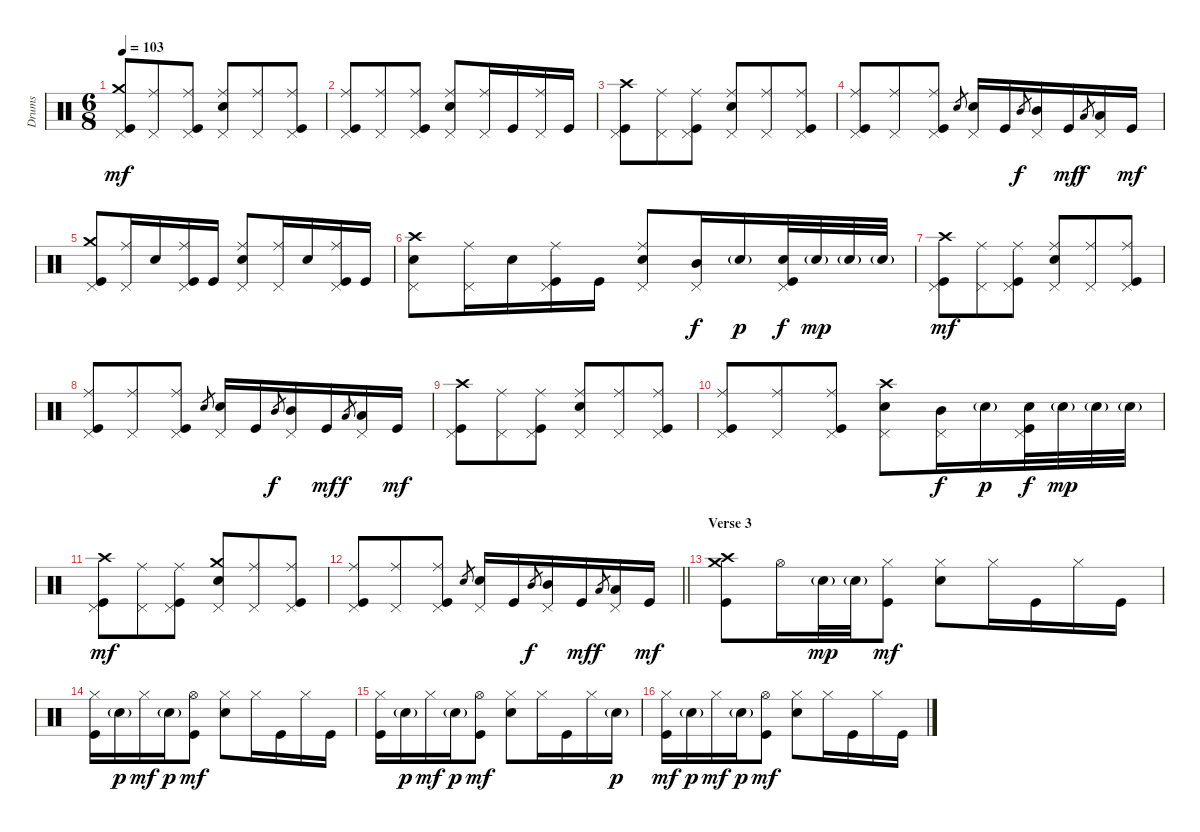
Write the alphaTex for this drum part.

\track ("Drums" "Drums") {instrument percussion}
\staff {score}
\articulation defaults
\ts (6 8)
\tempo 103
\clef neutral
\ks c
("Pedal Hi-Hat (hit)" "Crash medium (hit)" "Kick (hit)").8{dy mf} ("Pedal Hi-Hat (hit)" "Ride (middle)").8 ("Pedal Hi-Hat (hit)" "Ride (middle)" "Kick (hit)").8 ("Pedal Hi-Hat (hit)" "Ride (middle)" "Snare (hit) 2").8 ("Pedal Hi-Hat (hit)" "Ride (middle)").8 ("Pedal Hi-Hat (hit)" "Ride (middle)" "Kick (hit)").8 |
("Pedal Hi-Hat (hit)" "Ride (middle)" "Kick (hit)").8 ("Pedal Hi-Hat (hit)" "Ride (middle)").8 ("Pedal Hi-Hat (hit)" "Ride (middle)" "Kick (hit)").8 ("Pedal Hi-Hat (hit)" "Ride (middle)" "Snare (hit) 2").8 ("Pedal Hi-Hat (hit)" "Ride (middle)").16 "Kick (hit)".16 ("Pedal Hi-Hat (hit)" "Ride (middle)").16 "Kick (hit)".16 |
("Pedal Hi-Hat (hit)" "Crash high (hit)" "Kick (hit)").8 ("Pedal Hi-Hat (hit)" "Ride (middle)").8 ("Pedal Hi-Hat (hit)" "Ride (middle)" "Kick (hit)").8 ("Pedal Hi-Hat (hit)" "Ride (middle)" "Snare (hit) 2").8 ("Pedal Hi-Hat (hit)" "Ride (middle)").8 ("Pedal Hi-Hat (hit)" "Ride (middle)" "Kick (hit)").8 |
("Pedal Hi-Hat (hit)" "Ride (middle)" "Kick (hit)").8 ("Pedal Hi-Hat (hit)" "Ride (middle)").8 ("Pedal Hi-Hat (hit)" "Ride (middle)" "Kick (hit)").8 "Snare (hit) 2".8{gr} ("Pedal Hi-Hat (hit)" "Snare (hit) 2").16 "Kick (hit)".16 "Mid Tom (hit)".8{gr dy f} ("Pedal Hi-Hat (hit)" "Mid Tom (hit)").16 "Kick (hit)".16{dy mf} "Low Tom (hit)".8{gr dy f} ("Pedal Hi-Hat (hit)" "Low Tom (hit)").16 "Kick (hit)".16{dy mf} |
("Pedal Hi-Hat (hit)" "Crash medium (hit)" "Kick (hit)").8 ("Pedal Hi-Hat (hit)" "Ride (middle)").16 "Snare (hit) 2".16 ("Pedal Hi-Hat (hit)" "Ride (middle)" "Kick (hit)").16 "Kick (hit)".16 ("Ride (middle)" "Pedal Hi-Hat (hit)" "Snare (hit) 2").8 ("Pedal Hi-Hat (hit)" "Ride (middle)").16 "Snare (hit) 2".16 ("Pedal Hi-Hat (hit)" "Ride (middle)" "Kick (hit)").16 "Kick (hit)".16 |
("Pedal Hi-Hat (hit)" "Crash high (hit)" "Snare (hit) 2").8 ("Pedal Hi-Hat (hit)" "Ride (middle)").16 "Snare (hit) 2".16 ("Pedal Hi-Hat (hit)" "Ride (middle)" "Kick (hit)").16 "Kick (hit)".16 ("Ride (middle)" "Snare (hit) 2" "Pedal Hi-Hat (hit)").8 ("Pedal Hi-Hat (hit)" "Mid Tom (hit)").16{dy f} "Snare (hit) 2"{g}.16{dy p} ("Pedal Hi-Hat (hit)" "Snare (hit) 2" "Kick (hit)").32{dy f} "Snare (hit) 2"{g}.32{dy mp} "Snare (hit) 2"{g}.32 "Snare (hit) 2"{g}.32 |
("Pedal Hi-Hat (hit)" "Crash high (hit)" "Kick (hit)").8{dy mf} ("Pedal Hi-Hat (hit)" "Ride (middle)").8 ("Pedal Hi-Hat (hit)" "Ride (middle)" "Kick (hit)").8 ("Pedal Hi-Hat (hit)" "Ride (middle)" "Snare (hit) 2").8 ("Pedal Hi-Hat (hit)" "Ride (middle)").8 ("Pedal Hi-Hat (hit)" "Ride (middle)" "Kick (hit)").8 |
("Pedal Hi-Hat (hit)" "Ride (middle)" "Kick (hit)").8 ("Pedal Hi-Hat (hit)" "Ride (middle)").8 ("Pedal Hi-Hat (hit)" "Ride (middle)" "Kick (hit)").8 "Snare (hit) 2".8{gr} ("Pedal Hi-Hat (hit)" "Snare (hit) 2").16 "Kick (hit)".16 "Mid Tom (hit)".8{gr dy f} ("Pedal Hi-Hat (hit)" "Mid Tom (hit)").16 "Kick (hit)".16{dy mf} "Low Tom (hit)".8{gr dy f} ("Pedal Hi-Hat (hit)" "Low Tom (hit)").16 "Kick (hit)".16{dy mf} |
("Pedal Hi-Hat (hit)" "Crash high (hit)" "Kick (hit)").8 ("Pedal Hi-Hat (hit)" "Ride (middle)").8 ("Pedal Hi-Hat (hit)" "Ride (middle)" "Kick (hit)").8 ("Pedal Hi-Hat (hit)" "Ride (middle)" "Snare (hit) 2").8 ("Pedal Hi-Hat (hit)" "Ride (middle)").8 ("Pedal Hi-Hat (hit)" "Ride (middle)" "Kick (hit)").8 |
("Pedal Hi-Hat (hit)" "Ride (middle)" "Kick (hit)").8 ("Pedal Hi-Hat (hit)" "Ride (middle)").8 ("Pedal Hi-Hat (hit)" "Ride (middle)" "Kick (hit)").8 ("Pedal Hi-Hat (hit)" "Crash high (hit)" "Snare (hit) 2").8 ("Pedal Hi-Hat (hit)" "Mid Tom (hit)").16{dy f} "Snare (hit) 2"{g}.16{dy p} ("Pedal Hi-Hat (hit)" "Snare (hit) 2" "Kick (hit)").32{dy f} "Snare (hit) 2"{g}.32{dy mp} "Snare (hit) 2"{g}.32 "Snare (hit) 2"{g}.32 |
("Pedal Hi-Hat (hit)" "Crash high (hit)" "Kick (hit)").8{dy mf} ("Pedal Hi-Hat (hit)" "Ride (middle)").8 ("Pedal Hi-Hat (hit)" "Ride (middle)" "Kick (hit)").8 ("Pedal Hi-Hat (hit)" "Crash medium (hit)" "Snare (hit) 2").8 ("Pedal Hi-Hat (hit)" "Ride (middle)").8 ("Pedal Hi-Hat (hit)" "Ride (middle)" "Kick (hit)").8 |
\barLineRight lightlight
("Pedal Hi-Hat (hit)" "Ride (middle)" "Kick (hit)").8 ("Pedal Hi-Hat (hit)" "Ride (middle)").8 ("Pedal Hi-Hat (hit)" "Ride (middle)" "Kick (hit)").8 "Snare (hit) 2".8{gr} ("Pedal Hi-Hat (hit)" "Snare (hit) 2").16 "Kick (hit)".16 "Mid Tom (hit)".8{gr dy f} ("Pedal Hi-Hat (hit)" "Mid Tom (hit)").16 "Kick (hit)".16{dy mf} "Low Tom (hit)".8{gr dy f} ("Pedal Hi-Hat (hit)" "Low Tom (hit)").16 "Kick (hit)".16{dy mf} |
\section ("" "Verse 3")
("Crash medium (hit)" "Crash high (hit)" "Kick (hit)").8 "Hi-Hat (open)".16 "Snare (hit) 2"{g}.32{dy mp} "Snare (hit) 2"{g}.32 ("Hi-Hat (closed)" "Kick (hit)").8{dy mf} ("Hi-Hat (closed)" "Snare (hit) 2").8 "Hi-Hat (closed)".16 "Kick (hit)".16 "Hi-Hat (closed)".16 "Kick (hit)".16 |
("Hi-Hat (closed)" "Kick (hit)").16 "Snare (hit) 2"{g}.16{dy p} "Hi-Hat (closed)".16{dy mf} "Snare (hit) 2"{g}.16{dy p} ("Hi-Hat (open)" "Kick (hit)").8{dy mf} ("Hi-Hat (closed)" "Snare (hit) 2").8 "Hi-Hat (closed)".16 "Kick (hit)".16 "Hi-Hat (closed)".16 "Kick (hit)".16 |
("Hi-Hat (closed)" "Kick (hit)").16 "Snare (hit) 2"{g}.16{dy p} "Hi-Hat (closed)".16{dy mf} "Snare (hit) 2"{g}.16{dy p} ("Hi-Hat (open)" "Kick (hit)").8{dy mf} ("Hi-Hat (closed)" "Snare (hit) 2").8 "Hi-Hat (closed)".16 "Kick (hit)".16 "Hi-Hat (closed)".16 "Snare (hit) 2"{g}.16{dy p} |
("Hi-Hat (closed)" "Kick (hit)").16{dy mf} "Snare (hit) 2"{g}.16{dy p} "Hi-Hat (closed)".16{dy mf} "Snare (hit) 2"{g}.16{dy p} ("Hi-Hat (open)" "Kick (hit)").8{dy mf} ("Hi-Hat (closed)" "Snare (hit) 2").8 "Hi-Hat (closed)".16 "Kick (hit)".16 "Hi-Hat (closed)".16 "Kick (hit)".16
